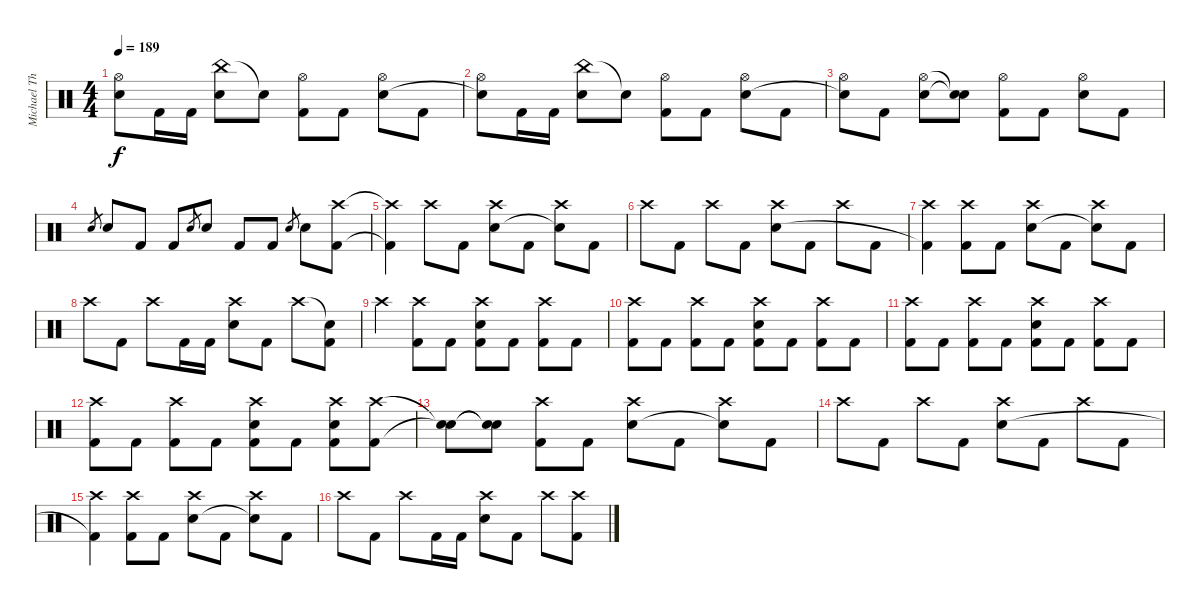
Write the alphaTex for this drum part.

\track ("Michael Thomas" "Michael Th") {instrument percussion}
\staff {score}
\articulation defaults
\ts (4 4)
\tempo 189
\clef neutral
\ks c
("Hi-Hat (open)" "Snare (hit)"{t}).8{dy f} "Kick (hit) 2".16 "Kick (hit) 2".16 ("China (hit)" "Electric Snare (hit)").8 "Snare (hit)"{t}.8 ("Hi-Hat (open)" "Kick (hit) 2").8 "Kick (hit) 2".8 ("Hi-Hat (open)" "Electric Snare (hit)").8 "Kick (hit) 2".8 |
("Hi-Hat (open)" "Snare (hit)"{t}).8 "Kick (hit) 2".16 "Kick (hit) 2".16 ("China (hit)" "Electric Snare (hit)").8 "Snare (hit)"{t}.8 ("Hi-Hat (open)" "Kick (hit) 2").8 "Kick (hit) 2".8 ("Hi-Hat (open)" "Electric Snare (hit)").8 "Kick (hit) 2".8 |
("Hi-Hat (open)" "Snare (hit)"{t}).8 "Kick (hit) 2".8 ("Hi-Hat (open)" "Electric Snare (hit)").8 ("Snare (hit)"{t} "Snare (hit)"{t}).8 ("Hi-Hat (open)" "Kick (hit) 2").8 "Kick (hit) 2".8 ("Hi-Hat (open)" "Electric Snare (hit)").8 "Kick (hit) 2".8 |
"Electric Snare (hit)".8{gr} "Electric Snare (hit)".8 "Kick (hit) 2".8 "Kick (hit) 2".8 "Electric Snare (hit)".8{gr} "Electric Snare (hit)".8 "Kick (hit) 2".8 "Kick (hit) 2".8 "Electric Snare (hit)".8{gr} "Electric Snare (hit)".8 ("Crash high (hit)" "Kick (hit) 2").8 |
("Crash high (hit)"{t} "Kick (hit) 2"{t}).4 "Crash high (hit)".8 "Kick (hit) 2".8 ("Crash high (hit)" "Electric Snare (hit)").8 "Kick (hit) 2".8 ("Crash high (hit)" "Snare (hit)"{t}).8 "Kick (hit) 2".8 |
"Crash high (hit)".8 "Kick (hit) 2".8 "Crash high (hit)".8 "Kick (hit) 2".8 ("Crash high (hit)" "Electric Snare (hit)").8 "Kick (hit) 2".8 "Crash high (hit)".8 "Kick (hit) 2".8 |
("Crash high (hit)" "Kick (hit) 2"{t}).4 ("Crash high (hit)" "Kick (hit) 2").8 "Kick (hit) 2".8 ("Crash high (hit)" "Electric Snare (hit)").8 "Kick (hit) 2".8 ("Crash high (hit)" "Snare (hit)"{t}).8 "Kick (hit) 2".8 |
"Crash high (hit)".8 "Kick (hit) 2".8 "Crash high (hit)".8 "Kick (hit) 2".16 "Kick (hit) 2".16 ("Crash high (hit)" "Electric Snare (hit)").8 "Kick (hit) 2".8 "Crash high (hit)".8 ("Snare (hit)"{t} "Kick (hit) 2").8 |
"Crash high (hit)".4 ("Crash high (hit)" "Kick (hit) 2").8 "Kick (hit) 2".8 ("Crash high (hit)" "Electric Snare (hit)" "Kick (hit) 2").8 "Kick (hit) 2".8 ("Crash high (hit)" "Kick (hit) 2").8 "Kick (hit) 2".8 |
("Crash high (hit)" "Kick (hit) 2").8 "Kick (hit) 2".8 ("Crash high (hit)" "Kick (hit) 2").8 "Kick (hit) 2".8 ("Crash high (hit)" "Electric Snare (hit)" "Kick (hit) 2").8 "Kick (hit) 2".8 ("Crash high (hit)" "Kick (hit) 2").8 "Kick (hit) 2".8 |
("Crash high (hit)" "Kick (hit) 2").8 "Kick (hit) 2".8 ("Crash high (hit)" "Kick (hit) 2").8 "Kick (hit) 2".8 ("Crash high (hit)" "Electric Snare (hit)" "Kick (hit) 2").8 "Kick (hit) 2".8 ("Crash high (hit)" "Kick (hit) 2").8 "Kick (hit) 2".8 |
("Crash high (hit)" "Kick (hit) 2").8 "Kick (hit) 2".8 ("Crash high (hit)" "Kick (hit) 2").8 "Kick (hit) 2".8 ("Crash high (hit)" "Electric Snare (hit)" "Kick (hit) 2").8 "Kick (hit) 2".8 ("Crash high (hit)" "Electric Snare (hit)" "Kick (hit) 2").8 ("Crash high (hit)" "Kick (hit) 2").8 |
("Snare (hit)"{t} "Snare (hit)"{t}).8 ("Snare (hit)"{t} "Snare (hit)"{t}).8 ("Crash high (hit)" "Kick (hit) 2").8 "Kick (hit) 2".8 ("Crash high (hit)" "Electric Snare (hit)").8 "Kick (hit) 2".8 ("Crash high (hit)" "Snare (hit)"{t}).8 "Kick (hit) 2".8 |
"Crash high (hit)".8 "Kick (hit) 2".8 "Crash high (hit)".8 "Kick (hit) 2".8 ("Crash high (hit)" "Electric Snare (hit)").8 "Kick (hit) 2".8 "Crash high (hit)".8 "Kick (hit) 2".8 |
("Crash high (hit)" "Kick (hit) 2"{t}).4 ("Crash high (hit)" "Kick (hit) 2").8 "Kick (hit) 2".8 ("Crash high (hit)" "Electric Snare (hit)").8 "Kick (hit) 2".8 ("Crash high (hit)" "Snare (hit)"{t}).8 "Kick (hit) 2".8 |
"Crash high (hit)".8 "Kick (hit) 2".8 "Crash high (hit)".8 "Kick (hit) 2".16 "Kick (hit) 2".16 ("Crash high (hit)" "Electric Snare (hit)").8 "Kick (hit) 2".8 "Crash high (hit)".8 ("Crash high (hit)" "Kick (hit) 2").8
